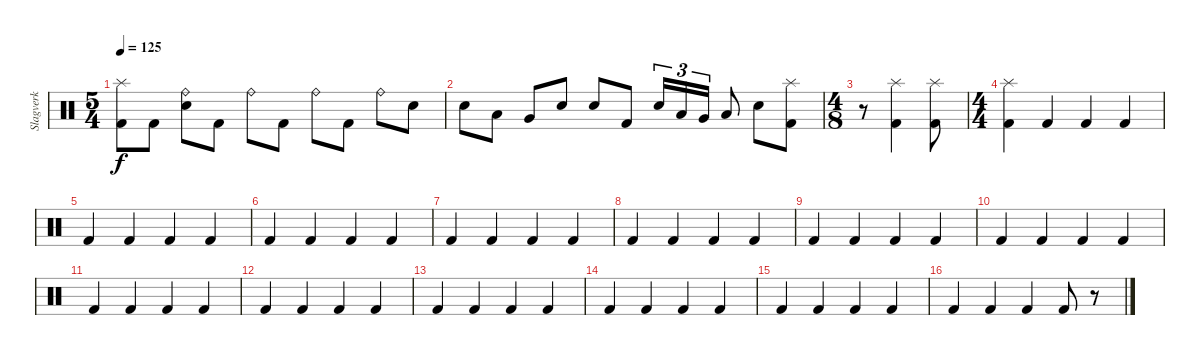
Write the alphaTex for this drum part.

\track ("Slagverk" "Slagverk") {instrument percussion}
\staff {score}
\articulation defaults
\ts (5 4)
\tempo 125
\clef neutral
\ks c
("Splash (hit)" "Kick (hit) 2").8{dy f} "Kick (hit) 2".8 ("Ride (bell)" "Snare (hit) 2").8 "Kick (hit) 2".8 "Ride (bell)".8 "Kick (hit) 2".8 "Ride (bell)".8 "Kick (hit) 2".8 "Ride (bell)".8 "Snare (hit) 2".8 |
"Snare (hit) 2".8 "Low Tom (hit)".8 "Very Low Tom (hit)".8 "Snare (hit) 2".8 "Snare (hit) 2".8 "Kick (hit) 2".8 "Snare (hit) 2".16{tu (3 2)} "Low Tom (hit)".16{tu (3 2)} "Very Low Tom (hit)".16{tu (3 2)} "Low Floor Tom (hit)".8 "Snare (hit) 2".8 ("Splash (hit)" "Kick (hit) 2").8 |
\ts (4 8)
r.8 ("Splash (hit)" "Kick (hit) 2").4 ("Splash (hit)" "Kick (hit) 2").8 |
\ts (4 4)
("Splash (hit)" "Kick (hit) 2").4 "Kick (hit) 2".4 "Kick (hit) 2".4 "Kick (hit) 2".4 |
"Kick (hit) 2".4 "Kick (hit) 2".4 "Kick (hit) 2".4 "Kick (hit) 2".4 |
"Kick (hit) 2".4 "Kick (hit) 2".4 "Kick (hit) 2".4 "Kick (hit) 2".4 |
"Kick (hit) 2".4 "Kick (hit) 2".4 "Kick (hit) 2".4 "Kick (hit) 2".4 |
"Kick (hit) 2".4 "Kick (hit) 2".4 "Kick (hit) 2".4 "Kick (hit) 2".4 |
"Kick (hit) 2".4 "Kick (hit) 2".4 "Kick (hit) 2".4 "Kick (hit) 2".4 |
"Kick (hit) 2".4 "Kick (hit) 2".4 "Kick (hit) 2".4 "Kick (hit) 2".4 |
"Kick (hit) 2".4 "Kick (hit) 2".4 "Kick (hit) 2".4 "Kick (hit) 2".4 |
"Kick (hit) 2".4 "Kick (hit) 2".4 "Kick (hit) 2".4 "Kick (hit) 2".4 |
"Kick (hit) 2".4 "Kick (hit) 2".4 "Kick (hit) 2".4 "Kick (hit) 2".4 |
"Kick (hit) 2".4 "Kick (hit) 2".4 "Kick (hit) 2".4 "Kick (hit) 2".4 |
"Kick (hit) 2".4 "Kick (hit) 2".4 "Kick (hit) 2".4 "Kick (hit) 2".4 |
"Kick (hit) 2".4 "Kick (hit) 2".4 "Kick (hit) 2".4 "Kick (hit) 2".8 r.8
